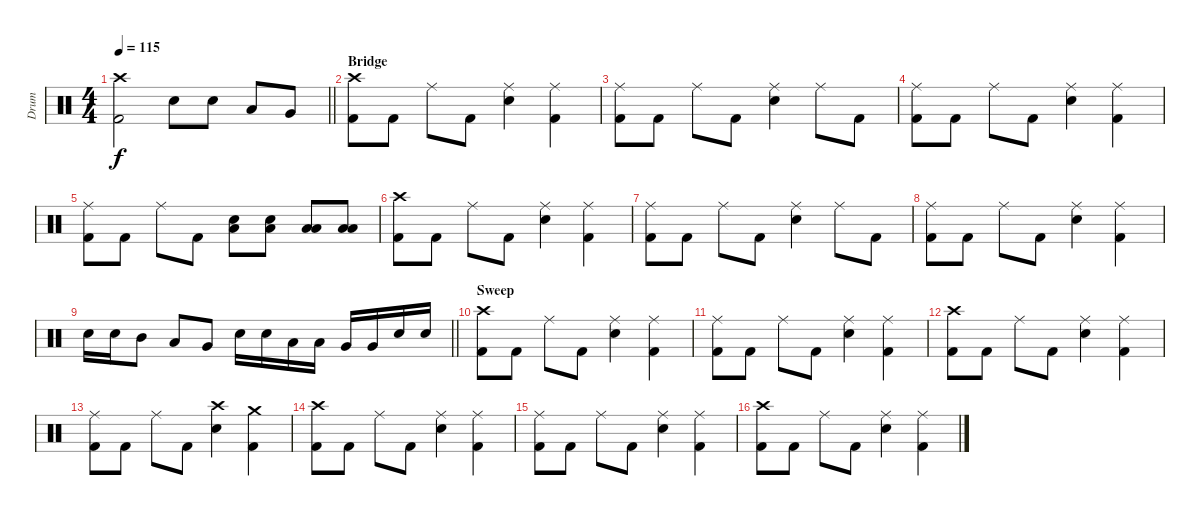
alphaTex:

\track ("Drum" "Drum") {instrument percussion}
\staff {score}
\articulation defaults
\ts (4 4)
\tempo 115
\clef neutral
\barLineRight lightlight
\ks c
("Kick (hit) 2" "Crash high (hit)").2{dy f} "Electric Snare (hit)".8 "Electric Snare (hit)".8 "Low Tom (hit)".8 "Very Low Tom (hit)".8 |
\section ("" "Bridge")
("Kick (hit) 2" "Crash high (hit)").8 "Kick (hit) 2".8 "Ride (middle)".8 "Kick (hit) 2".8 ("Ride (middle)" "Electric Snare (hit)").4 ("Kick (hit) 2" "Ride (middle)").4 |
("Kick (hit) 2" "Ride (middle)").8 "Kick (hit) 2".8 "Ride (middle)".8 "Kick (hit) 2".8 ("Ride (middle)" "Electric Snare (hit)").4 "Ride (middle)".8 "Kick (hit) 2".8 |
("Kick (hit) 2" "Ride (middle)").8 "Kick (hit) 2".8 "Ride (middle)".8 "Kick (hit) 2".8 ("Ride (middle)" "Electric Snare (hit)").4 ("Kick (hit) 2" "Ride (middle)").4 |
("Kick (hit) 2" "Ride (middle)").8 "Kick (hit) 2".8 "Ride (middle)".8 "Kick (hit) 2".8 ("Low Tom (hit)" "Electric Snare (hit)").8 ("Low Tom (hit)" "Electric Snare (hit)").8 ("Low Floor Tom (hit)" "Low Tom (hit)").8 ("Low Floor Tom (hit)" "Low Tom (hit)").8 |
("Kick (hit) 2" "Crash high (hit)").8 "Kick (hit) 2".8 "Ride (middle)".8 "Kick (hit) 2".8 ("Ride (middle)" "Electric Snare (hit)").4 ("Kick (hit) 2" "Ride (middle)").4 |
("Kick (hit) 2" "Ride (middle)").8 "Kick (hit) 2".8 "Ride (middle)".8 "Kick (hit) 2".8 ("Ride (middle)" "Electric Snare (hit)").4 "Ride (middle)".8 "Kick (hit) 2".8 |
("Kick (hit) 2" "Ride (middle)").8 "Kick (hit) 2".8 "Ride (middle)".8 "Kick (hit) 2".8 ("Ride (middle)" "Electric Snare (hit)").4 ("Kick (hit) 2" "Ride (middle)").4 |
\barLineRight lightlight "Electric Snare (hit)".16 "Electric Snare (hit)".16 "Mid Tom (hit)".8 "Low Tom (hit)".8 "Very Low Tom (hit)".8 "Electric Snare (hit)".16 "Electric Snare (hit)".16 "Low Tom (hit)".16 "Low Tom (hit)".16 "Very Low Tom (hit)".16 "Very Low Tom (hit)".16 "Electric Snare (hit)".16 "Electric Snare (hit)".16
|
\section ("" "Sweep")
("Kick (hit) 2" "Crash high (hit)").8 "Kick (hit) 2".8 "Ride (middle)".8 "Kick (hit) 2".8 ("Ride (middle)" "Electric Snare (hit)").4 ("Kick (hit) 2" "Ride (middle)").4 |
("Kick (hit) 2" "Ride (middle)").8 "Kick (hit) 2".8 "Ride (middle)".8 "Kick (hit) 2".8 ("Ride (middle)" "Electric Snare (hit)").4 ("Kick (hit) 2" "Ride (middle)").4 |
("Kick (hit) 2" "Crash high (hit)").8 "Kick (hit) 2".8 "Ride (middle)".8 "Kick (hit) 2".8 ("Ride (middle)" "Electric Snare (hit)").4 ("Kick (hit) 2" "Ride (middle)").4 |
("Kick (hit) 2" "Ride (middle)").8 "Kick (hit) 2".8 "Ride (middle)".8 "Kick (hit) 2".8 ("Crash high (hit)" "Electric Snare (hit)").4 ("Kick (hit) 2" "Crash medium (hit)").4 |
("Kick (hit) 2" "Crash high (hit)").8 "Kick (hit) 2".8 "Ride (middle)".8 "Kick (hit) 2".8 ("Ride (middle)" "Electric Snare (hit)").4 ("Kick (hit) 2" "Ride (middle)").4 |
("Kick (hit) 2" "Ride (middle)").8 "Kick (hit) 2".8 "Ride (middle)".8 "Kick (hit) 2".8 ("Ride (middle)" "Electric Snare (hit)").4 ("Kick (hit) 2" "Ride (middle)").4 |
("Kick (hit) 2" "Crash high (hit)").8 "Kick (hit) 2".8 "Ride (middle)".8 "Kick (hit) 2".8 ("Ride (middle)" "Electric Snare (hit)").4 ("Kick (hit) 2" "Ride (middle)").4
